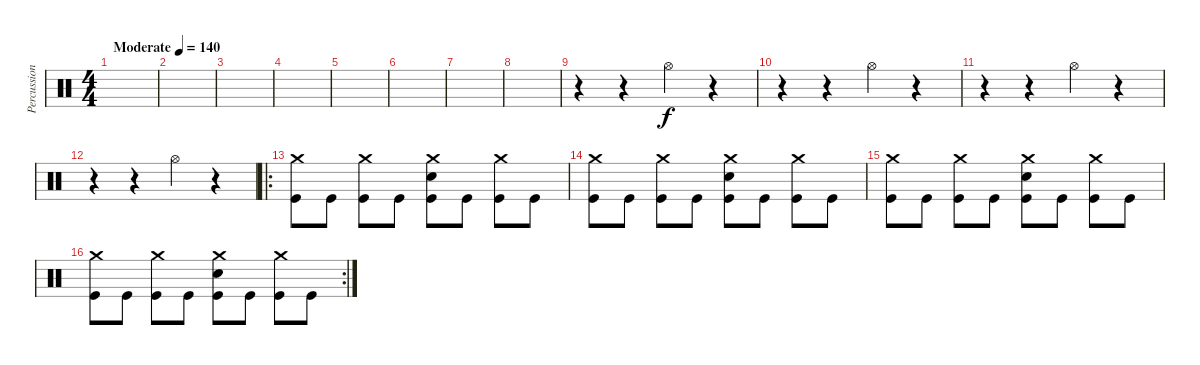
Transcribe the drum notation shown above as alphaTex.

\track ("Percussion" "Percussion") {instrument percussion}
\staff {score}
\articulation defaults
\ts (4 4)
\tempo (140 "Moderate")
\clef neutral
\ks c
|
|
|
|
|
|
|
|
r.4 r.4 "Hi-Hat (open)".4 r.4 |
r.4 r.4 "Hi-Hat (open)".4 r.4 |
r.4 r.4 "Hi-Hat (open)".4 r.4 |
r.4 r.4 "Hi-Hat (open)".4 r.4 |
\ro
("Crash medium (hit)" "Kick (hit)").8 "Kick (hit)".8 ("Crash medium (hit)" "Kick (hit)").8 "Kick (hit)".8 ("Crash medium (hit)" "Snare (hit) 2" "Kick (hit)").8 "Kick (hit)".8 ("Crash medium (hit)" "Kick (hit)").8 "Kick (hit)".8 |
("Crash medium (hit)" "Kick (hit)").8 "Kick (hit)".8 ("Crash medium (hit)" "Kick (hit)").8 "Kick (hit)".8 ("Crash medium (hit)" "Snare (hit) 2" "Kick (hit)").8 "Kick (hit)".8 ("Crash medium (hit)" "Kick (hit)").8 "Kick (hit)".8 |
("Crash medium (hit)" "Kick (hit)").8 "Kick (hit)".8 ("Crash medium (hit)" "Kick (hit)").8 "Kick (hit)".8 ("Crash medium (hit)" "Snare (hit) 2" "Kick (hit)").8 "Kick (hit)".8 ("Crash medium (hit)" "Kick (hit)").8 "Kick (hit)".8 |
\rc 2
("Crash medium (hit)" "Kick (hit)").8 "Kick (hit)".8 ("Crash medium (hit)" "Kick (hit)").8 "Kick (hit)".8 ("Crash medium (hit)" "Snare (hit) 2" "Kick (hit)").8 "Kick (hit)".8 ("Crash medium (hit)" "Kick (hit)").8 "Kick (hit)".8
